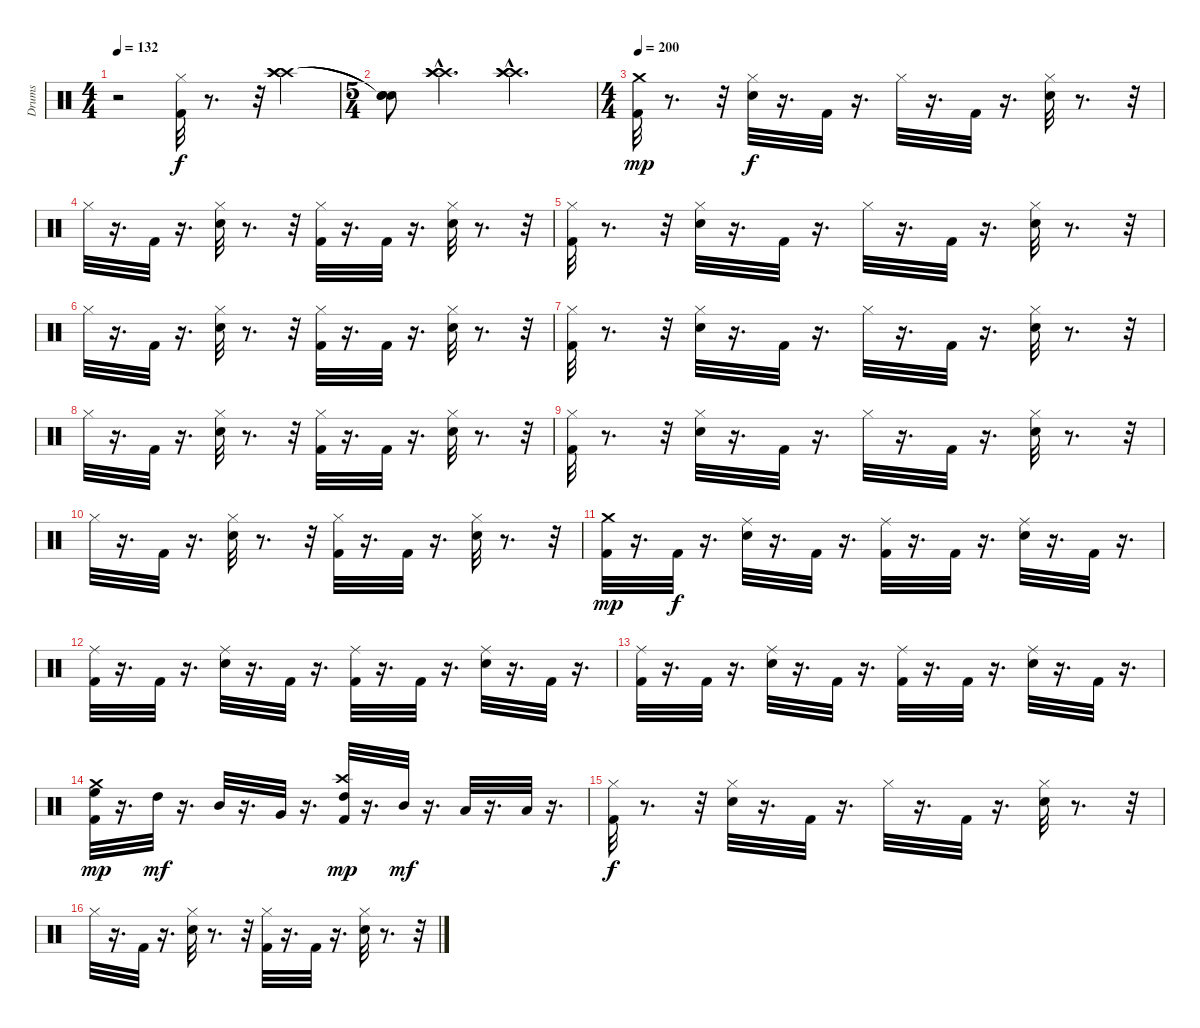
\track ("Drums" "Drums") {instrument percussion}
\staff {score}
\articulation defaults
\ts (4 4)
\tempo 132
\clef neutral
\ks c
r.2{dy f} ("Kick (hit) 2" "Hi-Hat (closed)").32 r.8{d} r.32 ("Crash high (hit)" "Crash high (hit)" "Crash high (hit)").4 |
\ts (5 4)
("Snare (hit)"{t} "Snare (hit)"{t} "Snare (hit)"{t}).8 ("Crash high (hit)"{hac} "Crash high (hit)"{hac} "Crash high (hit)"{hac}).4{d} ("Crash high (hit)"{hac} "Crash high (hit)"{hac} "Crash high (hit)"{hac}).2{d} |
\ts (4 4)
\tempo 200
("Kick (hit) 2" "Crash medium (hit)").32{dy mp} r.8{d} r.32 ("Snare (hit) 2" "Hi-Hat (closed)").32{dy f} r.16{d} "Kick (hit) 2".32 r.16{d} "Hi-Hat (closed)".32 r.16{d} "Kick (hit) 2".32 r.16{d} ("Snare (hit) 2" "Hi-Hat (closed)").32 r.8{d} r.32 |
"Hi-Hat (closed)".32 r.16{d} "Kick (hit) 2".32 r.16{d} ("Snare (hit) 2" "Hi-Hat (closed)").32 r.8{d} r.32 ("Kick (hit) 2" "Hi-Hat (closed)").32 r.16{d} "Kick (hit) 2".32 r.16{d} ("Snare (hit) 2" "Hi-Hat (closed)").32 r.8{d} r.32 |
("Kick (hit) 2" "Hi-Hat (closed)").32 r.8{d} r.32 ("Snare (hit) 2" "Hi-Hat (closed)").32 r.16{d} "Kick (hit) 2".32 r.16{d} "Hi-Hat (closed)".32 r.16{d} "Kick (hit) 2".32 r.16{d} ("Snare (hit) 2" "Hi-Hat (closed)").32 r.8{d} r.32 |
"Hi-Hat (closed)".32 r.16{d} "Kick (hit) 2".32 r.16{d} ("Snare (hit) 2" "Hi-Hat (closed)").32 r.8{d} r.32 ("Kick (hit) 2" "Hi-Hat (closed)").32 r.16{d} "Kick (hit) 2".32 r.16{d} ("Snare (hit) 2" "Hi-Hat (closed)").32 r.8{d} r.32 |
("Kick (hit) 2" "Hi-Hat (closed)").32 r.8{d} r.32 ("Snare (hit) 2" "Hi-Hat (closed)").32 r.16{d} "Kick (hit) 2".32 r.16{d} "Hi-Hat (closed)".32 r.16{d} "Kick (hit) 2".32 r.16{d} ("Snare (hit) 2" "Hi-Hat (closed)").32 r.8{d} r.32 |
"Hi-Hat (closed)".32 r.16{d} "Kick (hit) 2".32 r.16{d} ("Snare (hit) 2" "Hi-Hat (closed)").32 r.8{d} r.32 ("Kick (hit) 2" "Hi-Hat (closed)").32 r.16{d} "Kick (hit) 2".32 r.16{d} ("Snare (hit) 2" "Hi-Hat (closed)").32 r.8{d} r.32 |
("Kick (hit) 2" "Hi-Hat (closed)").32 r.8{d} r.32 ("Snare (hit) 2" "Hi-Hat (closed)").32 r.16{d} "Kick (hit) 2".32 r.16{d} "Hi-Hat (closed)".32 r.16{d} "Kick (hit) 2".32 r.16{d} ("Snare (hit) 2" "Hi-Hat (closed)").32 r.8{d} r.32 |
"Hi-Hat (closed)".32 r.16{d} "Kick (hit) 2".32 r.16{d} ("Snare (hit) 2" "Hi-Hat (closed)").32 r.8{d} r.32 ("Kick (hit) 2" "Hi-Hat (closed)").32 r.16{d} "Kick (hit) 2".32 r.16{d} ("Snare (hit) 2" "Hi-Hat (closed)").32 r.8{d} r.32 |
("Kick (hit) 2" "Crash medium (hit)").32{dy mp} r.16{d} "Kick (hit) 2".32{dy f} r.16{d} ("Snare (hit) 2" "Ride (middle)").32 r.16{d} "Kick (hit) 2".32 r.16{d} ("Kick (hit) 2" "Ride (middle)").32 r.16{d} "Kick (hit) 2".32 r.16{d} ("Snare (hit) 2" "Ride (middle)").32 r.16{d} "Kick (hit) 2".32 r.16{d} |
("Kick (hit) 2" "Ride (middle)").32 r.16{d} "Kick (hit) 2".32 r.16{d} ("Snare (hit) 2" "Ride (middle)").32 r.16{d} "Kick (hit) 2".32 r.16{d} ("Kick (hit) 2" "Ride (middle)").32 r.16{d} "Kick (hit) 2".32 r.16{d} ("Snare (hit) 2" "Ride (middle)").32 r.16{d} "Kick (hit) 2".32 r.16{d} |
("Kick (hit) 2" "Ride (middle)").32 r.16{d} "Kick (hit) 2".32 r.16{d} ("Snare (hit) 2" "Ride (middle)").32 r.16{d} "Kick (hit) 2".32 r.16{d} ("Kick (hit) 2" "Ride (middle)").32 r.16{d} "Kick (hit) 2".32 r.16{d} ("Snare (hit) 2" "Ride (middle)").32 r.16{d} "Kick (hit) 2".32 r.16{d} |
("Kick (hit) 2" "High Floor Tom (hit)" "Crash medium (hit)").32{dy mp} r.16{d} "High Tom (hit)".32{dy mf} r.16{d} "Mid Tom (hit)".32 r.16{d} "Very Low Tom (hit)".32 r.16{d} ("Kick (hit) 2" "High Tom (hit)" "Crash high (hit)").32{dy mp} r.16{d} "Mid Tom (hit)".32{dy mf} r.16{d} "Low Tom (hit)".32 r.16{d} "Low Floor Tom (hit)".32 r.16{d} |
("Kick (hit) 2" "Hi-Hat (closed)").32{dy f} r.8{d} r.32 ("Snare (hit) 2" "Hi-Hat (closed)").32 r.16{d} "Kick (hit) 2".32 r.16{d} "Hi-Hat (closed)".32 r.16{d} "Kick (hit) 2".32 r.16{d} ("Snare (hit) 2" "Hi-Hat (closed)").32 r.8{d} r.32 |
"Hi-Hat (closed)".32 r.16{d} "Kick (hit) 2".32 r.16{d} ("Snare (hit) 2" "Hi-Hat (closed)").32 r.8{d} r.32 ("Kick (hit) 2" "Hi-Hat (closed)").32 r.16{d} "Kick (hit) 2".32 r.16{d} ("Snare (hit) 2" "Hi-Hat (closed)").32 r.8{d} r.32
